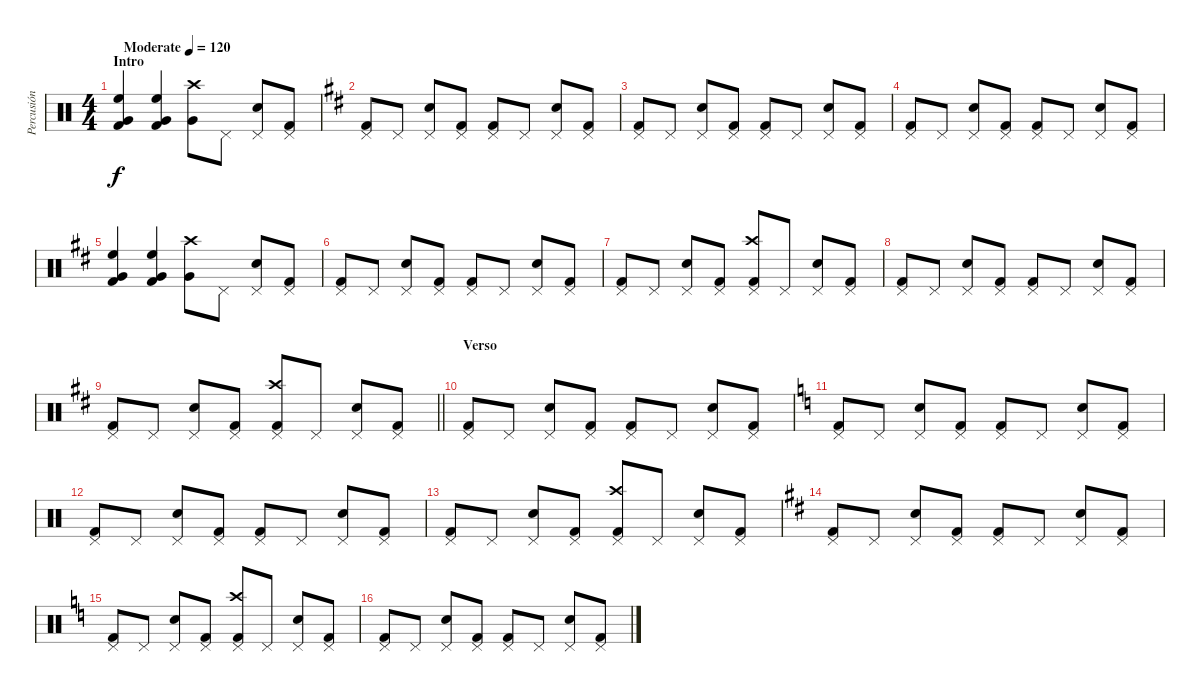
\track ("Percusión" "Percusión") {instrument percussion}
\staff {score}
\articulation defaults
\ts (4 4)
\section ("" "Intro")
\tempo (120 "Moderate")
\clef neutral
\ks c
("Very Low Tom (hit)" "High Floor Tom (hit)" "Kick (hit) 2").4{dy f} ("Very Low Tom (hit)" "High Floor Tom (hit)" "Kick (hit) 2").4 ("Very Low Tom (hit)" "Crash high (hit)").8 "Pedal Hi-Hat (hit)".8 ("Pedal Hi-Hat (hit)" "Electric Snare (hit)").8 ("Pedal Hi-Hat (hit)" "Kick (hit) 2").8 |
\ks d
("Pedal Hi-Hat (hit)" "Kick (hit) 2").8 "Pedal Hi-Hat (hit)".8 ("Pedal Hi-Hat (hit)" "Electric Snare (hit)").8 ("Pedal Hi-Hat (hit)" "Kick (hit) 2").8 ("Pedal Hi-Hat (hit)" "Kick (hit) 2").8 "Pedal Hi-Hat (hit)".8 ("Pedal Hi-Hat (hit)" "Electric Snare (hit)").8 ("Pedal Hi-Hat (hit)" "Kick (hit) 2").8 |
("Pedal Hi-Hat (hit)" "Kick (hit) 2").8 "Pedal Hi-Hat (hit)".8 ("Pedal Hi-Hat (hit)" "Electric Snare (hit)").8 ("Pedal Hi-Hat (hit)" "Kick (hit) 2").8 ("Pedal Hi-Hat (hit)" "Kick (hit) 2").8 "Pedal Hi-Hat (hit)".8 ("Pedal Hi-Hat (hit)" "Electric Snare (hit)").8 ("Pedal Hi-Hat (hit)" "Kick (hit) 2").8 |
("Pedal Hi-Hat (hit)" "Kick (hit) 2").8 "Pedal Hi-Hat (hit)".8 ("Pedal Hi-Hat (hit)" "Electric Snare (hit)").8 ("Pedal Hi-Hat (hit)" "Kick (hit) 2").8 ("Pedal Hi-Hat (hit)" "Kick (hit) 2").8 "Pedal Hi-Hat (hit)".8 ("Pedal Hi-Hat (hit)" "Electric Snare (hit)").8 ("Pedal Hi-Hat (hit)" "Kick (hit) 2").8 |
("Very Low Tom (hit)" "High Floor Tom (hit)" "Kick (hit) 2").4 ("Very Low Tom (hit)" "High Floor Tom (hit)" "Kick (hit) 2").4 ("Very Low Tom (hit)" "Crash high (hit)").8 "Pedal Hi-Hat (hit)".8 ("Pedal Hi-Hat (hit)" "Electric Snare (hit)").8 ("Pedal Hi-Hat (hit)" "Kick (hit) 2").8 |
("Pedal Hi-Hat (hit)" "Kick (hit) 2").8 "Pedal Hi-Hat (hit)".8 ("Pedal Hi-Hat (hit)" "Electric Snare (hit)").8 ("Pedal Hi-Hat (hit)" "Kick (hit) 2").8 ("Pedal Hi-Hat (hit)" "Kick (hit) 2").8 "Pedal Hi-Hat (hit)".8 ("Pedal Hi-Hat (hit)" "Electric Snare (hit)").8 ("Pedal Hi-Hat (hit)" "Kick (hit) 2").8 |
("Pedal Hi-Hat (hit)" "Kick (hit) 2").8 "Pedal Hi-Hat (hit)".8 ("Pedal Hi-Hat (hit)" "Electric Snare (hit)").8 ("Pedal Hi-Hat (hit)" "Kick (hit) 2").8 ("Pedal Hi-Hat (hit)" "Crash high (hit)" "Kick (hit) 2").8 "Pedal Hi-Hat (hit)".8 ("Pedal Hi-Hat (hit)" "Electric Snare (hit)").8 ("Pedal Hi-Hat (hit)" "Kick (hit) 2").8 |
("Pedal Hi-Hat (hit)" "Kick (hit) 2").8 "Pedal Hi-Hat (hit)".8 ("Pedal Hi-Hat (hit)" "Electric Snare (hit)").8 ("Pedal Hi-Hat (hit)" "Kick (hit) 2").8 ("Pedal Hi-Hat (hit)" "Kick (hit) 2").8 "Pedal Hi-Hat (hit)".8 ("Pedal Hi-Hat (hit)" "Electric Snare (hit)").8 ("Pedal Hi-Hat (hit)" "Kick (hit) 2").8 |
\barLineRight lightlight
("Pedal Hi-Hat (hit)" "Kick (hit) 2").8 "Pedal Hi-Hat (hit)".8 ("Pedal Hi-Hat (hit)" "Electric Snare (hit)").8 ("Pedal Hi-Hat (hit)" "Kick (hit) 2").8 ("Pedal Hi-Hat (hit)" "Crash high (hit)" "Kick (hit) 2").8 "Pedal Hi-Hat (hit)".8 ("Pedal Hi-Hat (hit)" "Electric Snare (hit)").8 ("Pedal Hi-Hat (hit)" "Kick (hit) 2").8 |
\section ("" "Verso")
("Pedal Hi-Hat (hit)" "Kick (hit) 2").8 "Pedal Hi-Hat (hit)".8 ("Pedal Hi-Hat (hit)" "Electric Snare (hit)").8 ("Pedal Hi-Hat (hit)" "Kick (hit) 2").8 ("Pedal Hi-Hat (hit)" "Kick (hit) 2").8 "Pedal Hi-Hat (hit)".8 ("Pedal Hi-Hat (hit)" "Electric Snare (hit)").8 ("Pedal Hi-Hat (hit)" "Kick (hit) 2").8 |
\ks c
("Pedal Hi-Hat (hit)" "Kick (hit) 2").8 "Pedal Hi-Hat (hit)".8 ("Pedal Hi-Hat (hit)" "Electric Snare (hit)").8 ("Pedal Hi-Hat (hit)" "Kick (hit) 2").8 ("Pedal Hi-Hat (hit)" "Kick (hit) 2").8 "Pedal Hi-Hat (hit)".8 ("Pedal Hi-Hat (hit)" "Electric Snare (hit)").8 ("Pedal Hi-Hat (hit)" "Kick (hit) 2").8 |
("Pedal Hi-Hat (hit)" "Kick (hit) 2").8 "Pedal Hi-Hat (hit)".8 ("Pedal Hi-Hat (hit)" "Electric Snare (hit)").8 ("Pedal Hi-Hat (hit)" "Kick (hit) 2").8 ("Pedal Hi-Hat (hit)" "Kick (hit) 2").8 "Pedal Hi-Hat (hit)".8 ("Pedal Hi-Hat (hit)" "Electric Snare (hit)").8 ("Pedal Hi-Hat (hit)" "Kick (hit) 2").8 |
("Pedal Hi-Hat (hit)" "Kick (hit) 2").8 "Pedal Hi-Hat (hit)".8 ("Pedal Hi-Hat (hit)" "Electric Snare (hit)").8 ("Pedal Hi-Hat (hit)" "Kick (hit) 2").8 ("Pedal Hi-Hat (hit)" "Crash high (hit)" "Kick (hit) 2").8 "Pedal Hi-Hat (hit)".8 ("Pedal Hi-Hat (hit)" "Electric Snare (hit)").8 ("Pedal Hi-Hat (hit)" "Kick (hit) 2").8 |
\ks d
("Pedal Hi-Hat (hit)" "Kick (hit) 2").8 "Pedal Hi-Hat (hit)".8 ("Pedal Hi-Hat (hit)" "Electric Snare (hit)").8 ("Pedal Hi-Hat (hit)" "Kick (hit) 2").8 ("Pedal Hi-Hat (hit)" "Kick (hit) 2").8 "Pedal Hi-Hat (hit)".8 ("Pedal Hi-Hat (hit)" "Electric Snare (hit)").8 ("Pedal Hi-Hat (hit)" "Kick (hit) 2").8 |
\ks c
("Pedal Hi-Hat (hit)" "Kick (hit) 2").8 "Pedal Hi-Hat (hit)".8 ("Pedal Hi-Hat (hit)" "Electric Snare (hit)").8 ("Pedal Hi-Hat (hit)" "Kick (hit) 2").8 ("Pedal Hi-Hat (hit)" "Crash high (hit)" "Kick (hit) 2").8 "Pedal Hi-Hat (hit)".8 ("Pedal Hi-Hat (hit)" "Electric Snare (hit)").8 ("Pedal Hi-Hat (hit)" "Kick (hit) 2").8 |
("Pedal Hi-Hat (hit)" "Kick (hit) 2").8 "Pedal Hi-Hat (hit)".8 ("Pedal Hi-Hat (hit)" "Electric Snare (hit)").8 ("Pedal Hi-Hat (hit)" "Kick (hit) 2").8 ("Pedal Hi-Hat (hit)" "Kick (hit) 2").8 "Pedal Hi-Hat (hit)".8 ("Pedal Hi-Hat (hit)" "Electric Snare (hit)").8 ("Pedal Hi-Hat (hit)" "Kick (hit) 2").8
